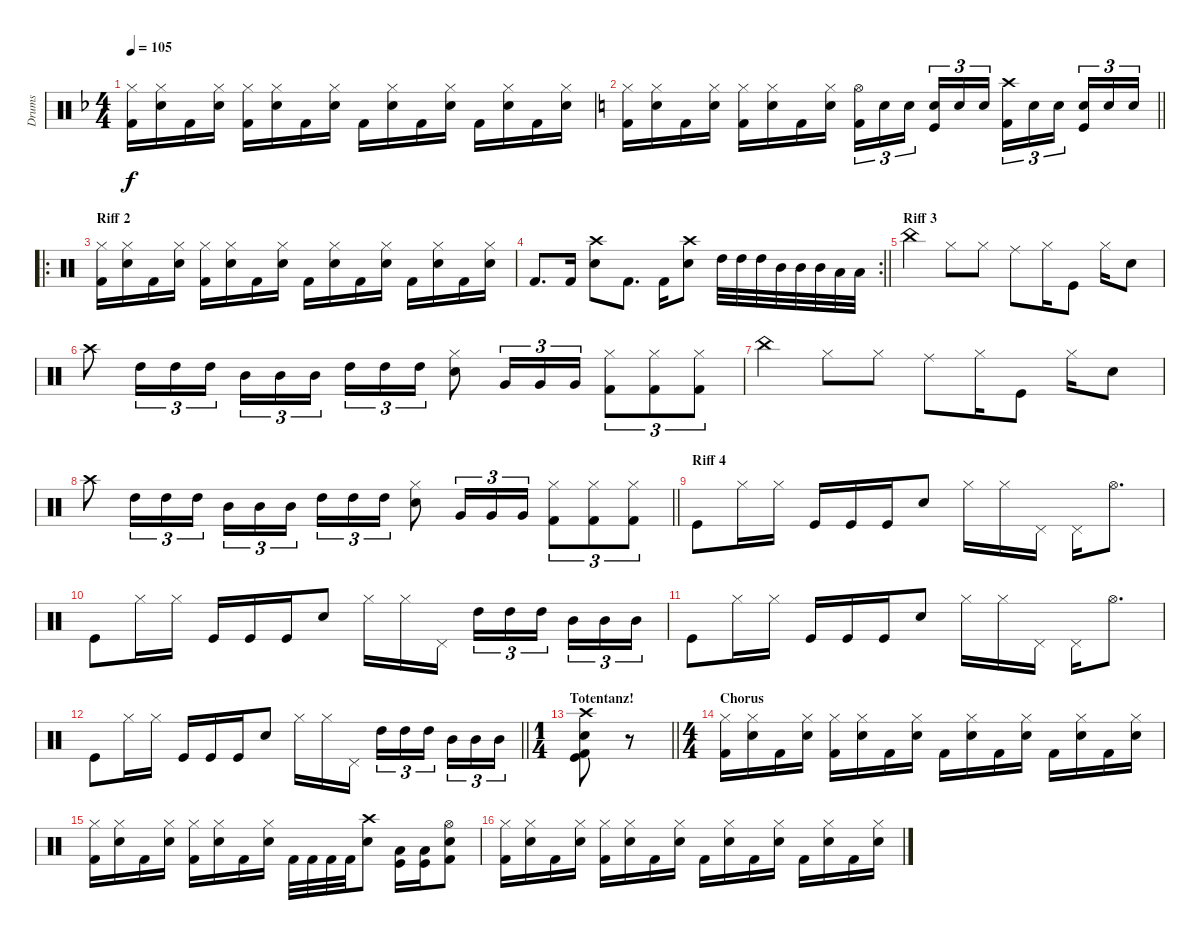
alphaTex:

\track ("Drums" "Drums") {instrument percussion}
\staff {score}
\articulation defaults
\ts (4 4)
\tempo 105
\clef neutral
\ks f
("Hi-Hat (closed)" "Kick (hit) 2").16{dy f} ("Hi-Hat (closed)" "Snare (hit) 2").16 "Kick (hit) 2".16 ("Hi-Hat (closed)" "Snare (hit) 2").16 ("Hi-Hat (closed)" "Kick (hit) 2").16 ("Hi-Hat (closed)" "Snare (hit) 2").16 "Kick (hit) 2".16 ("Hi-Hat (closed)" "Snare (hit) 2").16 "Kick (hit) 2".16 ("Hi-Hat (closed)" "Snare (hit) 2").16 "Kick (hit) 2".16 ("Hi-Hat (closed)" "Snare (hit) 2").16 "Kick (hit) 2".16 ("Hi-Hat (closed)" "Snare (hit) 2").16 "Kick (hit) 2".16 ("Hi-Hat (closed)" "Snare (hit) 2").16 |
\barLineRight lightlight
\ks c
("Hi-Hat (closed)" "Kick (hit) 2").16 ("Hi-Hat (closed)" "Snare (hit) 2").16 "Kick (hit) 2".16 ("Hi-Hat (closed)" "Snare (hit) 2").16 ("Hi-Hat (closed)" "Kick (hit) 2").16 ("Hi-Hat (closed)" "Snare (hit) 2").16 "Kick (hit) 2".16 ("Hi-Hat (closed)" "Snare (hit) 2").16 ("Hi-Hat (open)" "Kick (hit) 2").16{tu (3 2)} "Snare (hit) 2".16{tu (3 2)} "Snare (hit) 2".16{tu (3 2) beam splitsecondary} ("Kick (hit)" "Snare (hit) 2").16{tu (3 2)} "Snare (hit) 2".16{tu (3 2)} "Snare (hit) 2".16{tu (3 2)} ("Crash high (hit)" "Kick (hit) 2").16{tu (3 2)} "Snare (hit) 2".16{tu (3 2)} "Snare (hit) 2".16{tu (3 2) beam splitsecondary} ("Kick (hit)" "Snare (hit) 2").16{tu (3 2)} "Snare (hit) 2".16{tu (3 2)} "Snare (hit) 2".16{tu (3 2)} |
\ro
\section ("" "Riff 2")
("Hi-Hat (closed)" "Kick (hit) 2").16 ("Hi-Hat (closed)" "Snare (hit) 2").16 "Kick (hit) 2".16 ("Hi-Hat (closed)" "Snare (hit) 2").16 ("Hi-Hat (closed)" "Kick (hit) 2").16 ("Hi-Hat (closed)" "Snare (hit) 2").16 "Kick (hit) 2".16 ("Hi-Hat (closed)" "Snare (hit) 2").16 "Kick (hit) 2".16 ("Hi-Hat (closed)" "Snare (hit) 2").16 "Kick (hit) 2".16 ("Hi-Hat (closed)" "Snare (hit) 2").16 "Kick (hit) 2".16 ("Hi-Hat (closed)" "Snare (hit) 2").16 "Kick (hit) 2".16 ("Hi-Hat (closed)" "Snare (hit) 2").16 |
\rc 2
\barLineRight lightlight "Kick (hit) 2".8{d} "Kick (hit) 2".16
("Crash high (hit)" "Snare (hit) 2").8 "Kick (hit) 2".8{d} "Kick (hit) 2".16 ("Crash high (hit)" "Snare (hit) 2").8 "High Tom (hit)".32 "High Tom (hit)".32 "High Tom (hit)".32 "Mid Tom (hit)".32 "Mid Tom (hit)".32 "Mid Tom (hit)".32 "Low Tom (hit)".32 "Low Tom (hit)".32 |
\section ("" "Riff 3")
"China (hit)".4 "Hi-Hat (closed)".8 "Hi-Hat (closed)".8 "Ride (middle)".8 "Hi-Hat (closed)".16 "Kick (hit)".8 "Hi-Hat (closed)".16 "Snare (hit) 2".8 |
"Crash high (hit)".8 "High Tom (hit)".16{tu (3 2)} "High Tom (hit)".16{tu (3 2)} "High Tom (hit)".16{tu (3 2)} "Mid Tom (hit)".16{tu (3 2)} "Mid Tom (hit)".16{tu (3 2)} "Mid Tom (hit)".16{tu (3 2) beam splitsecondary} "High Tom (hit)".16{tu (3 2)} "High Tom (hit)".16{tu (3 2)} "High Tom (hit)".16{tu (3 2)} ("Hi-Hat (closed)" "Snare (hit) 2").8 "Very Low Tom (hit)".16{tu (3 2)} "Very Low Tom (hit)".16{tu (3 2)} "Very Low Tom (hit)".16{tu (3 2)} ("Hi-Hat (closed)" "Kick (hit) 2").8{tu (3 2)} ("Hi-Hat (closed)" "Kick (hit) 2").8{tu (3 2)} ("Hi-Hat (closed)" "Kick (hit) 2").8{tu (3 2)} |
"China (hit)".4 "Hi-Hat (closed)".8 "Hi-Hat (closed)".8 "Ride (middle)".8 "Hi-Hat (closed)".16 "Kick (hit)".8 "Hi-Hat (closed)".16 "Snare (hit) 2".8 |
\barLineRight lightlight "Crash high (hit)".8 "High Tom (hit)".16{tu (3 2)} "High Tom (hit)".16{tu (3 2)} "High Tom (hit)".16{tu (3 2)} "Mid Tom (hit)".16{tu (3 2)} "Mid Tom (hit)".16{tu (3 2)} "Mid Tom (hit)".16{tu (3 2) beam splitsecondary} "High Tom (hit)".16{tu (3 2)} "High Tom (hit)".16{tu (3 2)} "High Tom (hit)".16{tu (3 2)}
("Hi-Hat (closed)" "Snare (hit) 2").8 "Very Low Tom (hit)".16{tu (3 2)} "Very Low Tom (hit)".16{tu (3 2)} "Very Low Tom (hit)".16{tu (3 2)} ("Hi-Hat (closed)" "Kick (hit) 2").8{tu (3 2)} ("Hi-Hat (closed)" "Kick (hit) 2").8{tu (3 2)} ("Hi-Hat (closed)" "Kick (hit) 2").8{tu (3 2)} |
\section ("" "Riff 4")
"Kick (hit)".8 "Hi-Hat (closed)".16 "Hi-Hat (closed)".16 "Kick (hit)".16 "Kick (hit)".16 "Kick (hit)".16 "Snare (hit) 2".8 "Hi-Hat (closed)".16 "Hi-Hat (closed)".16 "Pedal Hi-Hat (hit)".16 "Pedal Hi-Hat (hit)".16 "Hi-Hat (open)".8{d} |
"Kick (hit)".8 "Hi-Hat (closed)".16 "Hi-Hat (closed)".16 "Kick (hit)".16 "Kick (hit)".16 "Kick (hit)".16 "Snare (hit) 2".8 "Hi-Hat (closed)".16 "Hi-Hat (closed)".16 "Pedal Hi-Hat (hit)".16 "High Tom (hit)".16{tu (3 2)} "High Tom (hit)".16{tu (3 2)} "High Tom (hit)".16{tu (3 2) beam splitsecondary} "Mid Tom (hit)".16{tu (3 2)} "Mid Tom (hit)".16{tu (3 2)} "Mid Tom (hit)".16{tu (3 2)} |
"Kick (hit)".8 "Hi-Hat (closed)".16 "Hi-Hat (closed)".16 "Kick (hit)".16 "Kick (hit)".16 "Kick (hit)".16 "Snare (hit) 2".8 "Hi-Hat (closed)".16 "Hi-Hat (closed)".16 "Pedal Hi-Hat (hit)".16 "Pedal Hi-Hat (hit)".16 "Hi-Hat (open)".8{d} |
\barLineRight lightlight "Kick (hit)".8 "Hi-Hat (closed)".16 "Hi-Hat (closed)".16 "Kick (hit)".16 "Kick (hit)".16 "Kick (hit)".16 "Snare (hit) 2".8 "Hi-Hat (closed)".16 "Hi-Hat (closed)".16 "Pedal Hi-Hat (hit)".16 "High Tom (hit)".16{tu (3 2)} "High Tom (hit)".16{tu (3 2)} "High Tom (hit)".16{tu (3 2) beam splitsecondary} "Mid Tom (hit)".16{tu (3 2)} "Mid Tom (hit)".16{tu (3 2)} "Mid Tom (hit)".16{tu (3 2)}
|
\ts (1 4)
\section ("" "Totentanz!")
\barLineRight lightlight
("Crash high (hit)" "Snare (hit) 2" "Kick (hit) 2" "Kick (hit)").8 r.8 |
\ts (4 4)
\section ("" "Chorus")
("Hi-Hat (closed)" "Kick (hit) 2").16 ("Hi-Hat (closed)" "Snare (hit) 2").16 "Kick (hit) 2".16 ("Hi-Hat (closed)" "Snare (hit) 2").16 ("Hi-Hat (closed)" "Kick (hit) 2").16 ("Hi-Hat (closed)" "Snare (hit) 2").16 "Kick (hit) 2".16 ("Hi-Hat (closed)" "Snare (hit) 2").16 "Kick (hit) 2".16 ("Hi-Hat (closed)" "Snare (hit) 2").16 "Kick (hit) 2".16 ("Hi-Hat (closed)" "Snare (hit) 2").16 "Kick (hit) 2".16 ("Hi-Hat (closed)" "Snare (hit) 2").16 "Kick (hit) 2".16 ("Hi-Hat (closed)" "Snare (hit) 2").16 |
("Hi-Hat (closed)" "Kick (hit) 2").16 ("Hi-Hat (closed)" "Snare (hit) 2").16 "Kick (hit) 2".16 ("Hi-Hat (closed)" "Snare (hit) 2").16 ("Hi-Hat (closed)" "Kick (hit) 2").16 ("Hi-Hat (closed)" "Snare (hit) 2").16 "Kick (hit) 2".16 ("Hi-Hat (closed)" "Snare (hit) 2").16 "Kick (hit) 2".32 "Kick (hit) 2".32 "Kick (hit) 2".32 "Kick (hit) 2".32 ("Snare (hit) 2" "Crash high (hit)").8 ("Kick (hit)" "Low Floor Tom (hit)").16 ("Kick (hit)" "Low Floor Tom (hit)").16 ("Hi-Hat (open)" "Snare (hit) 2" "Kick (hit) 2").8 |
("Hi-Hat (closed)" "Kick (hit) 2").16 ("Hi-Hat (closed)" "Snare (hit) 2").16 "Kick (hit) 2".16 ("Hi-Hat (closed)" "Snare (hit) 2").16 ("Hi-Hat (closed)" "Kick (hit) 2").16 ("Hi-Hat (closed)" "Snare (hit) 2").16 "Kick (hit) 2".16 ("Hi-Hat (closed)" "Snare (hit) 2").16 "Kick (hit) 2".16 ("Hi-Hat (closed)" "Snare (hit) 2").16 "Kick (hit) 2".16 ("Hi-Hat (closed)" "Snare (hit) 2").16 "Kick (hit) 2".16 ("Hi-Hat (closed)" "Snare (hit) 2").16 "Kick (hit) 2".16 ("Hi-Hat (closed)" "Snare (hit) 2").16
